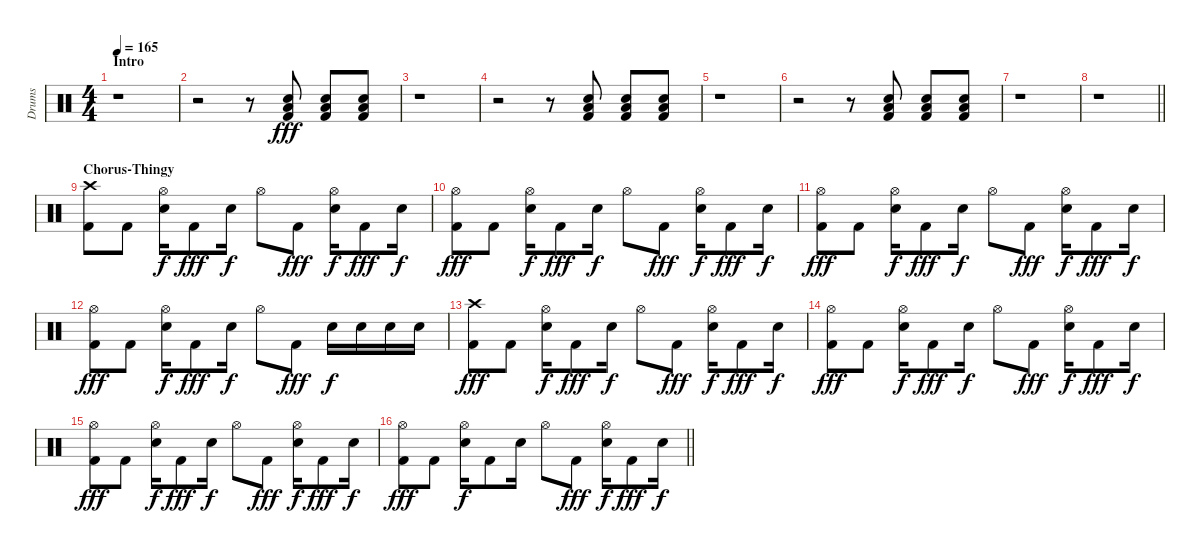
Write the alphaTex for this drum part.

\track ("Drums" "Drums") {instrument percussion}
\staff {score}
\articulation defaults
\ts (4 4)
\section ("" "Intro")
\tempo 165
\clef neutral
\ks c
r.1{dy fff} |
r.2 r.8 ("Snare (hit) 2" "Low Floor Tom (hit)" "Kick (hit) 2").8 ("Snare (hit) 2" "Low Floor Tom (hit)" "Kick (hit) 2").8 ("Snare (hit) 2" "Low Floor Tom (hit)" "Kick (hit) 2").8 |
r.1 |
r.2 r.8 ("Snare (hit) 2" "Low Floor Tom (hit)" "Kick (hit) 2").8 ("Snare (hit) 2" "Low Floor Tom (hit)" "Kick (hit) 2").8 ("Snare (hit) 2" "Low Floor Tom (hit)" "Kick (hit) 2").8 |
r.1 |
r.2 r.8 ("Snare (hit) 2" "Low Floor Tom (hit)" "Kick (hit) 2").8 ("Snare (hit) 2" "Low Floor Tom (hit)" "Kick (hit) 2").8 ("Snare (hit) 2" "Low Floor Tom (hit)" "Kick (hit) 2").8 |
r.1 |
\barLineRight lightlight
r.1 |
\section ("" "Chorus-Thingy")
("Crash high (hit)" "Kick (hit) 2").8 "Kick (hit) 2".8 ("Hi-Hat (open)" "Snare (hit) 2").16{dy f} "Kick (hit) 2".8{dy fff} "Snare (hit) 2".16{dy f} "Hi-Hat (open)".8 "Kick (hit) 2".8{dy fff} ("Hi-Hat (open)" "Snare (hit) 2").16{dy f} "Kick (hit) 2".8{dy fff} "Snare (hit) 2".16{dy f} |
("Hi-Hat (open)" "Kick (hit) 2").8{dy fff} "Kick (hit) 2".8 ("Hi-Hat (open)" "Snare (hit) 2").16{dy f} "Kick (hit) 2".8{dy fff} "Snare (hit) 2".16{dy f} "Hi-Hat (open)".8 "Kick (hit) 2".8{dy fff} ("Hi-Hat (open)" "Snare (hit) 2").16{dy f} "Kick (hit) 2".8{dy fff} "Snare (hit) 2".16{dy f} |
("Hi-Hat (open)" "Kick (hit) 2").8{dy fff} "Kick (hit) 2".8 ("Hi-Hat (open)" "Snare (hit) 2").16{dy f} "Kick (hit) 2".8{dy fff} "Snare (hit) 2".16{dy f} "Hi-Hat (open)".8 "Kick (hit) 2".8{dy fff} ("Hi-Hat (open)" "Snare (hit) 2").16{dy f} "Kick (hit) 2".8{dy fff} "Snare (hit) 2".16{dy f} |
("Hi-Hat (open)" "Kick (hit) 2").8{dy fff} "Kick (hit) 2".8 ("Hi-Hat (open)" "Snare (hit) 2").16{dy f} "Kick (hit) 2".8{dy fff} "Snare (hit) 2".16{dy f} "Hi-Hat (open)".8 "Kick (hit) 2".8{dy fff} "Snare (hit) 2".16{dy f} "Snare (hit) 2".16 "Snare (hit) 2".16 "Snare (hit) 2".16 |
("Crash high (hit)" "Kick (hit) 2").8{dy fff} "Kick (hit) 2".8 ("Hi-Hat (open)" "Snare (hit) 2").16{dy f} "Kick (hit) 2".8{dy fff} "Snare (hit) 2".16{dy f} "Hi-Hat (open)".8 "Kick (hit) 2".8{dy fff} ("Hi-Hat (open)" "Snare (hit) 2").16{dy f} "Kick (hit) 2".8{dy fff} "Snare (hit) 2".16{dy f} |
("Hi-Hat (open)" "Kick (hit) 2").8{dy fff} "Kick (hit) 2".8 ("Hi-Hat (open)" "Snare (hit) 2").16{dy f} "Kick (hit) 2".8{dy fff} "Snare (hit) 2".16{dy f} "Hi-Hat (open)".8 "Kick (hit) 2".8{dy fff} ("Hi-Hat (open)" "Snare (hit) 2").16{dy f} "Kick (hit) 2".8{dy fff} "Snare (hit) 2".16{dy f} |
("Hi-Hat (open)" "Kick (hit) 2").8{dy fff} "Kick (hit) 2".8 ("Hi-Hat (open)" "Snare (hit) 2").16{dy f} "Kick (hit) 2".8{dy fff} "Snare (hit) 2".16{dy f} "Hi-Hat (open)".8 "Kick (hit) 2".8{dy fff} ("Hi-Hat (open)" "Snare (hit) 2").16{dy f} "Kick (hit) 2".8{dy fff} "Snare (hit) 2".16{dy f} |
\barLineRight lightlight
("Hi-Hat (open)" "Kick (hit) 2").8{dy fff} "Kick (hit) 2".8 ("Hi-Hat (open)" "Snare (hit) 2").16{dy f} "Kick (hit) 2".8 "Snare (hit) 2".16 "Hi-Hat (open)".8 "Kick (hit) 2".8{dy fff} ("Hi-Hat (open)" "Snare (hit) 2").16{dy f} "Kick (hit) 2".8{dy fff} "Snare (hit) 2".16{dy f}
